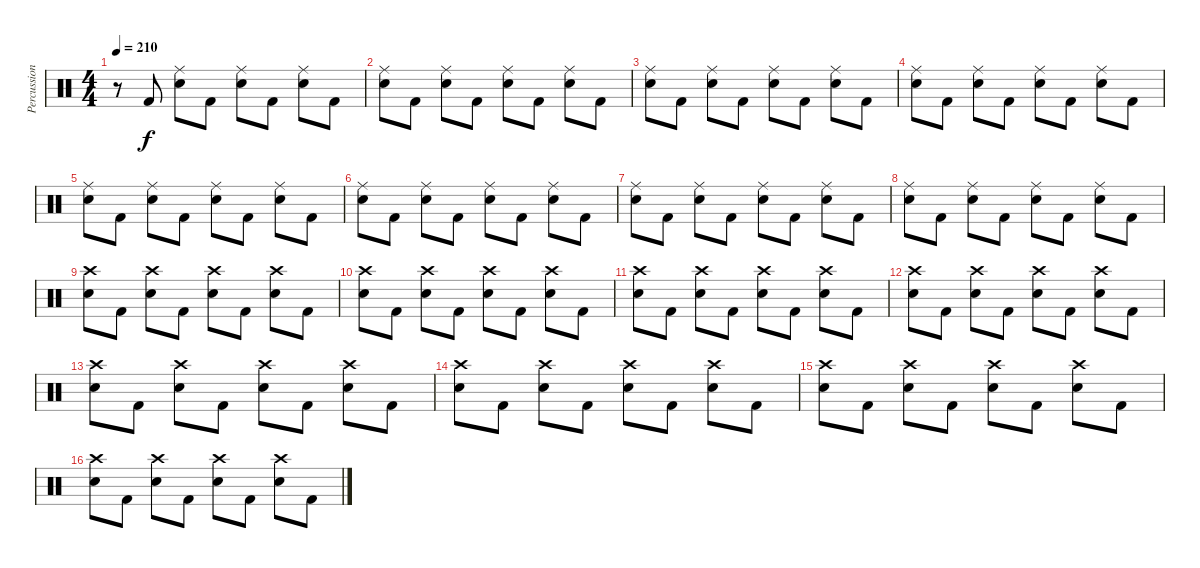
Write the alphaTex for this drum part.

\track ("Percussion" "Percussion") {instrument percussion}
\staff {score}
\articulation defaults
\ts (4 4)
\tempo 210
\clef neutral
\ks c
r.8{dy f} "Kick (hit) 2".8 ("Ride (middle)" "Electric Snare (hit)").8 "Kick (hit) 2".8 ("Ride (middle)" "Electric Snare (hit)").8 "Kick (hit) 2".8 ("Ride (middle)" "Electric Snare (hit)").8 "Kick (hit) 2".8 |
("Ride (middle)" "Electric Snare (hit)").8 "Kick (hit) 2".8 ("Ride (middle)" "Electric Snare (hit)").8 "Kick (hit) 2".8 ("Ride (middle)" "Electric Snare (hit)").8 "Kick (hit) 2".8 ("Ride (middle)" "Electric Snare (hit)").8 "Kick (hit) 2".8 |
("Ride (middle)" "Electric Snare (hit)").8 "Kick (hit) 2".8 ("Ride (middle)" "Electric Snare (hit)").8 "Kick (hit) 2".8 ("Ride (middle)" "Electric Snare (hit)").8 "Kick (hit) 2".8 ("Ride (middle)" "Electric Snare (hit)").8 "Kick (hit) 2".8 |
("Ride (middle)" "Electric Snare (hit)").8 "Kick (hit) 2".8 ("Ride (middle)" "Electric Snare (hit)").8 "Kick (hit) 2".8 ("Ride (middle)" "Electric Snare (hit)").8 "Kick (hit) 2".8 ("Ride (middle)" "Electric Snare (hit)").8 "Kick (hit) 2".8 |
("Ride (middle)" "Electric Snare (hit)").8 "Kick (hit) 2".8 ("Ride (middle)" "Electric Snare (hit)").8 "Kick (hit) 2".8 ("Ride (middle)" "Electric Snare (hit)").8 "Kick (hit) 2".8 ("Ride (middle)" "Electric Snare (hit)").8 "Kick (hit) 2".8 |
("Ride (middle)" "Electric Snare (hit)").8 "Kick (hit) 2".8 ("Ride (middle)" "Electric Snare (hit)").8 "Kick (hit) 2".8 ("Ride (middle)" "Electric Snare (hit)").8 "Kick (hit) 2".8 ("Ride (middle)" "Electric Snare (hit)").8 "Kick (hit) 2".8 |
("Ride (middle)" "Electric Snare (hit)").8 "Kick (hit) 2".8 ("Ride (middle)" "Electric Snare (hit)").8 "Kick (hit) 2".8 ("Ride (middle)" "Electric Snare (hit)").8 "Kick (hit) 2".8 ("Ride (middle)" "Electric Snare (hit)").8 "Kick (hit) 2".8 |
("Ride (middle)" "Electric Snare (hit)").8 "Kick (hit) 2".8 ("Ride (middle)" "Electric Snare (hit)").8 "Kick (hit) 2".8 ("Ride (middle)" "Electric Snare (hit)").8 "Kick (hit) 2".8 ("Ride (middle)" "Electric Snare (hit)").8 "Kick (hit) 2".8 |
("Crash high (hit)" "Electric Snare (hit)").8 "Kick (hit) 2".8 ("Crash high (hit)" "Electric Snare (hit)").8 "Kick (hit) 2".8 ("Crash high (hit)" "Electric Snare (hit)").8 "Kick (hit) 2".8 ("Crash high (hit)" "Electric Snare (hit)").8 "Kick (hit) 2".8 |
("Crash high (hit)" "Electric Snare (hit)").8 "Kick (hit) 2".8 ("Crash high (hit)" "Electric Snare (hit)").8 "Kick (hit) 2".8 ("Crash high (hit)" "Electric Snare (hit)").8 "Kick (hit) 2".8 ("Crash high (hit)" "Electric Snare (hit)").8 "Kick (hit) 2".8 |
("Crash high (hit)" "Electric Snare (hit)").8 "Kick (hit) 2".8 ("Crash high (hit)" "Electric Snare (hit)").8 "Kick (hit) 2".8 ("Crash high (hit)" "Electric Snare (hit)").8 "Kick (hit) 2".8 ("Crash high (hit)" "Electric Snare (hit)").8 "Kick (hit) 2".8 |
("Crash high (hit)" "Electric Snare (hit)").8 "Kick (hit) 2".8 ("Crash high (hit)" "Electric Snare (hit)").8 "Kick (hit) 2".8 ("Crash high (hit)" "Electric Snare (hit)").8 "Kick (hit) 2".8 ("Crash high (hit)" "Electric Snare (hit)").8 "Kick (hit) 2".8 |
("Crash high (hit)" "Electric Snare (hit)").8 "Kick (hit) 2".8 ("Crash high (hit)" "Electric Snare (hit)").8 "Kick (hit) 2".8 ("Crash high (hit)" "Electric Snare (hit)").8 "Kick (hit) 2".8 ("Crash high (hit)" "Electric Snare (hit)").8 "Kick (hit) 2".8 |
("Crash high (hit)" "Electric Snare (hit)").8 "Kick (hit) 2".8 ("Crash high (hit)" "Electric Snare (hit)").8 "Kick (hit) 2".8 ("Crash high (hit)" "Electric Snare (hit)").8 "Kick (hit) 2".8 ("Crash high (hit)" "Electric Snare (hit)").8 "Kick (hit) 2".8 |
("Crash high (hit)" "Electric Snare (hit)").8 "Kick (hit) 2".8 ("Crash high (hit)" "Electric Snare (hit)").8 "Kick (hit) 2".8 ("Crash high (hit)" "Electric Snare (hit)").8 "Kick (hit) 2".8 ("Crash high (hit)" "Electric Snare (hit)").8 "Kick (hit) 2".8 |
("Crash high (hit)" "Electric Snare (hit)").8 "Kick (hit) 2".8 ("Crash high (hit)" "Electric Snare (hit)").8 "Kick (hit) 2".8 ("Crash high (hit)" "Electric Snare (hit)").8 "Kick (hit) 2".8 ("Crash high (hit)" "Electric Snare (hit)").8 "Kick (hit) 2".8
